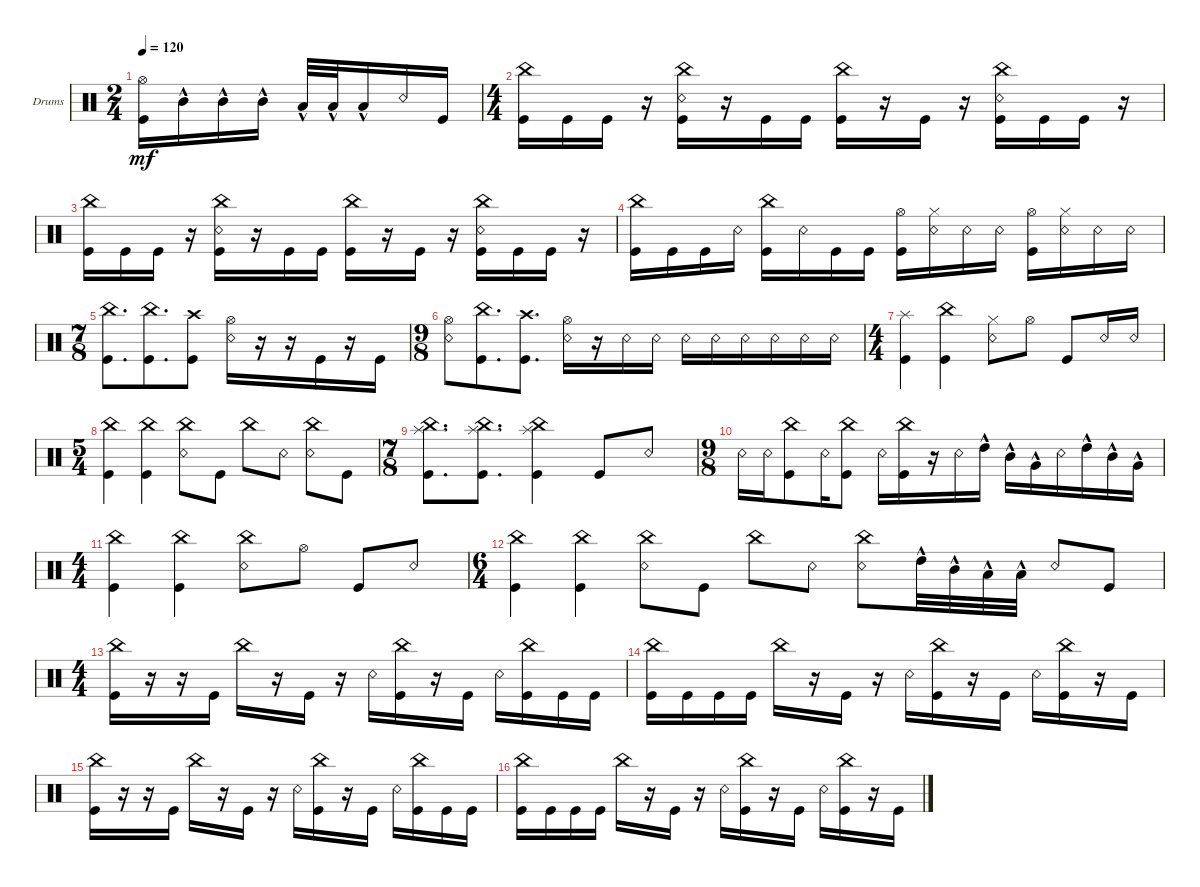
\defaultSystemsLayout 4
\bracketExtendMode groupsimilarinstruments
\firstSystemTrackNameOrientation horizontal
\otherSystemsTrackNameOrientation horizontal
\track ("Drumkit" "Drums") {instrument percussion}
\staff {score}
\articulation defaults
\ts (2 4)
\tempo 120
\clef neutral
\ks c
("Kick (hit)" "Hi-Hat (open)").16{dy mf} "Mid Tom (hit)"{hac}.16 "Mid Tom (hit)"{hac}.16 "Mid Tom (hit)"{hac}.16 "Low Tom (hit)"{hac}.32 "Low Tom (hit)"{hac}.32 "Low Tom (hit)"{hac}.16 "Snare (rim shot)".16 "Kick (hit)".16 |
\ts (4 4)
("Kick (hit)" "China (hit)").16 "Kick (hit)".16 "Kick (hit)".16 r.16 ("Kick (hit)" "China (hit)" "Snare (rim shot)").16 r.16 "Kick (hit)".16 "Kick (hit)".16 ("Kick (hit)" "China (hit)").16 r.16 "Kick (hit)".16 r.16 ("Kick (hit)" "Snare (rim shot)" "China (hit)").16 "Kick (hit)".16 "Kick (hit)".16 r.16 |
("Kick (hit)" "China (hit)").16 "Kick (hit)".16 "Kick (hit)".16 r.16 ("Kick (hit)" "China (hit)" "Snare (rim shot)").16 r.16 "Kick (hit)".16 "Kick (hit)".16 ("Kick (hit)" "China (hit)").16 r.16 "Kick (hit)".16 r.16 ("Kick (hit)" "Snare (rim shot)" "China (hit)").16 "Kick (hit)".16 "Kick (hit)".16 r.16 |
("Kick (hit)" "China (hit)").16 "Kick (hit)".16 "Kick (hit)".16 "Snare (rim shot)".16 ("Kick (hit)" "China (hit)").16 "Snare (rim shot)".16 "Kick (hit)".16 "Kick (hit)".16 ("Kick (hit)" "Hi-Hat (open)").16 ("Snare (rim shot)" "Hi-Hat (closed)").16 "Snare (rim shot)".16 "Snare (rim shot)".16 ("Kick (hit)" "Hi-Hat (open)").16 ("Snare (rim shot)" "Hi-Hat (closed)").16 "Snare (rim shot)".16 "Snare (rim shot)".16 |
\ts (7 8)
("Kick (hit)" "China (hit)").8{d} ("Kick (hit)" "China (hit)").8{d} ("Kick (hit)" "Crash high (hit)").8 ("Snare (rim shot)" "Hi-Hat (open)").16 r.16 r.16 "Kick (hit)".16 r.16 "Kick (hit)".16 |
\ts (9 8)
("Snare (rim shot)" "Hi-Hat (open)").8 ("Kick (hit)" "China (hit)").8{d} ("Kick (hit)" "Crash high (hit)").8{d} ("Snare (rim shot)" "Hi-Hat (open)").16 r.16 "Snare (rim shot)".16 "Snare (rim shot)".16 "Snare (rim shot)".16 "Snare (rim shot)".16 "Snare (rim shot)".16 "Snare (rim shot)".16 "Snare (rim shot)".16 "Snare (rim shot)".16 |
\ts (4 4)
("Splash (hit)" "Kick (hit)").4 ("Kick (hit)" "China (hit)").4 ("Snare (rim shot)" "Hi-Hat (closed)").8 "Hi-Hat (open)".8 "Kick (hit)".8 "Snare (rim shot)".16 "Snare (rim shot)".16 |
\ts (5 4)
("China (hit)" "Kick (hit)").4 ("Kick (hit)" "China (hit)").4 ("Snare (rim shot)" "China (hit)").8 "Kick (hit)".8 "China (hit)".8 "Snare (rim shot)".8 ("Snare (rim shot)" "China (hit)").8 "Kick (hit)".8 |
\ts (7 8)
("China (hit)" "Splash (hit)" "Kick (hit)").8{d} ("Splash (hit)" "China (hit)" "Kick (hit)").8{d} ("Splash (hit)" "China (hit)" "Kick (hit)").4 "Kick (hit)".8 "Snare (rim shot)".8 |
\ts (9 8)
"Snare (rim shot)".16 "Snare (rim shot)".16 ("China (hit)" "Kick (hit)").8 "Snare (rim shot)".16 ("China (hit)" "Kick (hit)").8 "Snare (rim shot)".16 ("Kick (hit)" "China (hit)").16 r.16 "Snare (rim shot)".16 "High Tom (hit)"{hac}.16 "Mid Tom (hit)"{hac}.16 "Very Low Tom (hit)"{hac}.16 "Snare (rim shot)".16 "High Tom (hit)"{hac}.16 "Mid Tom (hit)"{hac}.16 "Very Low Tom (hit)"{hac}.16 |
\ts (4 4)
("Kick (hit)" "China (hit)").4 ("Kick (hit)" "China (hit)").4 ("Snare (rim shot)" "China (hit)").8 "Hi-Hat (open)".8 "Kick (hit)".8 "Snare (rim shot)".8 |
\ts (6 4)
("China (hit)" "Kick (hit)").4 ("Kick (hit)" "China (hit)").4 ("Snare (rim shot)" "China (hit)").8 "Kick (hit)".8 "China (hit)".8 "Snare (rim shot)".8 ("Snare (rim shot)" "China (hit)").8 "High Tom (hit)"{hac}.32 "Mid Tom (hit)"{hac}.32 "Low Tom (hit)"{hac}.32 "Low Tom (hit)"{hac}.32 "Snare (rim shot)".8 "Kick (hit)".8 |
\ts (4 4)
("Kick (hit)" "China (hit)").16 r.16 r.16 "Kick (hit)".16 "China (hit)".16 r.16 "Kick (hit)".16 r.16 "Snare (rim shot)".16 ("Kick (hit)" "China (hit)").16 r.16 "Kick (hit)".16 "Snare (rim shot)".16 ("Kick (hit)" "China (hit)").16 "Kick (hit)".16 "Kick (hit)".16 |
("Kick (hit)" "China (hit)").16 "Kick (hit)".16 "Kick (hit)".16 "Kick (hit)".16 "China (hit)".16 r.16 "Kick (hit)".16 r.16 "Snare (rim shot)".16 ("Kick (hit)" "China (hit)").16 r.16 "Kick (hit)".16 "Snare (rim shot)".16 ("Kick (hit)" "China (hit)").16 r.16 "Kick (hit)".16 |
("Kick (hit)" "China (hit)").16 r.16 r.16 "Kick (hit)".16 "China (hit)".16 r.16 "Kick (hit)".16 r.16 "Snare (rim shot)".16 ("Kick (hit)" "China (hit)").16 r.16 "Kick (hit)".16 "Snare (rim shot)".16 ("Kick (hit)" "China (hit)").16 "Kick (hit)".16 "Kick (hit)".16 |
("Kick (hit)" "China (hit)").16 "Kick (hit)".16 "Kick (hit)".16 "Kick (hit)".16 "China (hit)".16 r.16 "Kick (hit)".16 r.16 "Snare (rim shot)".16 ("Kick (hit)" "China (hit)").16 r.16 "Kick (hit)".16 "Snare (rim shot)".16 ("Kick (hit)" "China (hit)").16 r.16 "Kick (hit)".16
